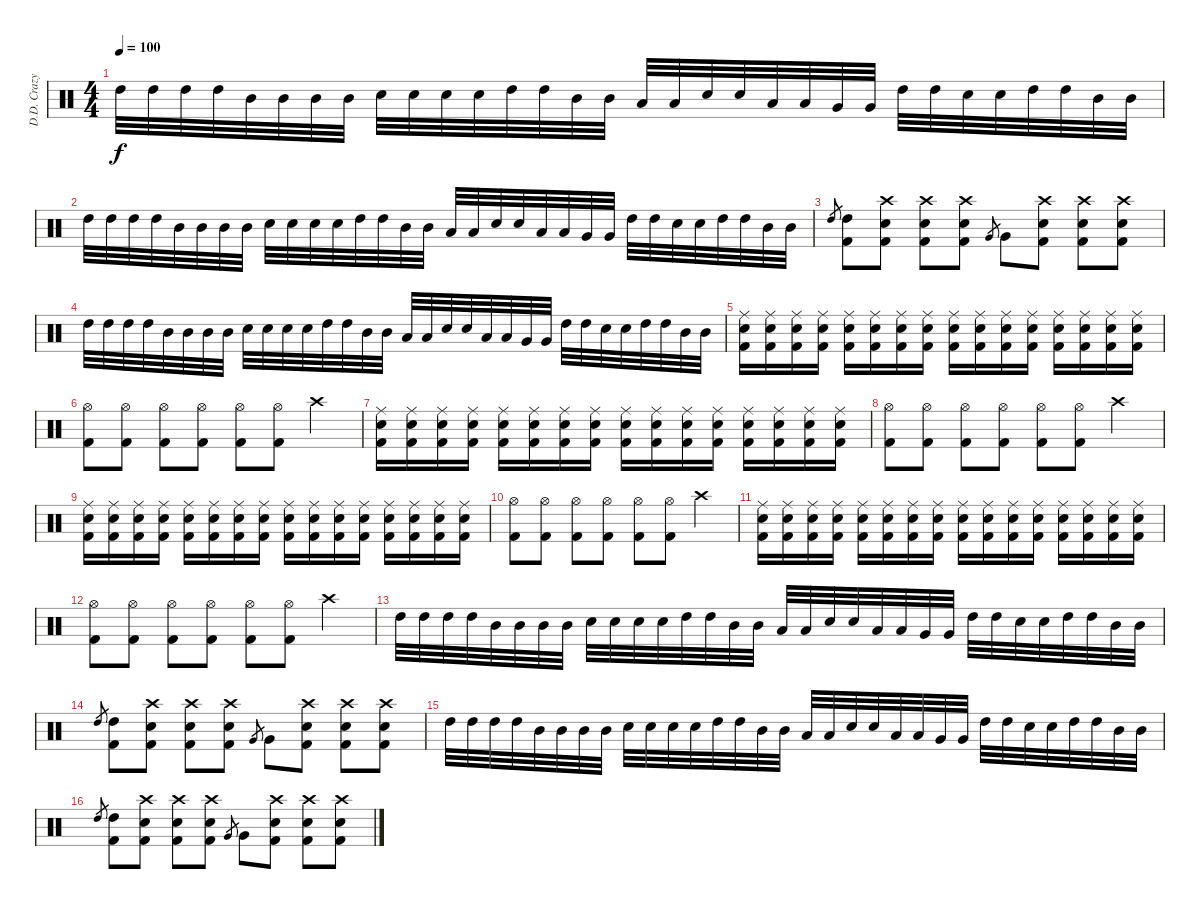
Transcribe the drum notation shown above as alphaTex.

\track ("D.D. Crazy " "D.D. Crazy") {instrument percussion}
\staff {score}
\articulation defaults
\ts (4 4)
\tempo 100
\clef neutral
\ks c "High Tom (hit)".32{dy f} "High Tom (hit)".32 "High Tom (hit)".32 "High Tom (hit)".32 "Mid Tom (hit)".32 "Mid Tom (hit)".32 "Mid Tom (hit)".32 "Mid Tom (hit)".32 "Snare (hit) 2".32 "Snare (hit) 2".32 "Snare (hit) 2".32 "Snare (hit) 2".32 "High Tom (hit)".32 "High Tom (hit)".32 "Mid Tom (hit)".32 "Mid Tom (hit)".32 "Low Tom (hit)".32 "Low Tom (hit)".32 "Snare (hit) 2".32 "Snare (hit) 2".32 "Low Tom (hit)".32 "Low Tom (hit)".32 "Very Low Tom (hit)".32 "Very Low Tom (hit)".32 "High Tom (hit)".32 "High Tom (hit)".32 "Snare (hit) 2".32 "Snare (hit) 2".32 "High Tom (hit)".32 "High Tom (hit)".32 "Mid Tom (hit)".32 "Mid Tom (hit)".32
|
"High Tom (hit)".32 "High Tom (hit)".32 "High Tom (hit)".32 "High Tom (hit)".32 "Mid Tom (hit)".32 "Mid Tom (hit)".32 "Mid Tom (hit)".32 "Mid Tom (hit)".32 "Snare (hit) 2".32 "Snare (hit) 2".32 "Snare (hit) 2".32 "Snare (hit) 2".32 "High Tom (hit)".32 "High Tom (hit)".32 "Mid Tom (hit)".32 "Mid Tom (hit)".32 "Low Tom (hit)".32 "Low Tom (hit)".32 "Snare (hit) 2".32 "Snare (hit) 2".32 "Low Tom (hit)".32 "Low Tom (hit)".32 "Very Low Tom (hit)".32 "Very Low Tom (hit)".32 "High Tom (hit)".32 "High Tom (hit)".32 "Snare (hit) 2".32 "Snare (hit) 2".32 "High Tom (hit)".32 "High Tom (hit)".32 "Mid Tom (hit)".32 "Mid Tom (hit)".32 |
"High Tom (hit)".8{gr} ("High Tom (hit)" "Kick (hit) 2").8 ("Crash high (hit)" "Snare (hit) 2" "Kick (hit) 2").8 ("Crash high (hit)" "Snare (hit) 2" "Kick (hit) 2").8 ("Crash high (hit)" "Snare (hit) 2" "Kick (hit) 2").8 "Very Low Tom (hit)".8{gr} "Very Low Tom (hit)".8 ("Crash high (hit)" "Snare (hit) 2" "Kick (hit) 2").8 ("Crash high (hit)" "Snare (hit) 2" "Kick (hit) 2").8 ("Crash high (hit)" "Snare (hit) 2" "Kick (hit) 2").8 |
"High Tom (hit)".32 "High Tom (hit)".32 "High Tom (hit)".32 "High Tom (hit)".32 "Mid Tom (hit)".32 "Mid Tom (hit)".32 "Mid Tom (hit)".32 "Mid Tom (hit)".32 "Snare (hit) 2".32 "Snare (hit) 2".32 "Snare (hit) 2".32 "Snare (hit) 2".32 "High Tom (hit)".32 "High Tom (hit)".32 "Mid Tom (hit)".32 "Mid Tom (hit)".32 "Low Tom (hit)".32 "Low Tom (hit)".32 "Snare (hit) 2".32 "Snare (hit) 2".32 "Low Tom (hit)".32 "Low Tom (hit)".32 "Very Low Tom (hit)".32 "Very Low Tom (hit)".32 "High Tom (hit)".32 "High Tom (hit)".32 "Snare (hit) 2".32 "Snare (hit) 2".32 "High Tom (hit)".32 "High Tom (hit)".32 "Mid Tom (hit)".32 "Mid Tom (hit)".32 |
("Ride (middle)" "Snare (hit) 2" "Kick (hit) 2").16 ("Ride (middle)" "Snare (hit) 2" "Kick (hit) 2").16 ("Ride (middle)" "Snare (hit) 2" "Kick (hit) 2").16 ("Ride (middle)" "Snare (hit) 2" "Kick (hit) 2").16 ("Ride (middle)" "Snare (hit) 2" "Kick (hit) 2").16 ("Ride (middle)" "Snare (hit) 2" "Kick (hit) 2").16 ("Ride (middle)" "Snare (hit) 2" "Kick (hit) 2").16 ("Ride (middle)" "Snare (hit) 2" "Kick (hit) 2").16 ("Ride (middle)" "Snare (hit) 2" "Kick (hit) 2").16 ("Ride (middle)" "Snare (hit) 2" "Kick (hit) 2").16 ("Ride (middle)" "Snare (hit) 2" "Kick (hit) 2").16 ("Ride (middle)" "Snare (hit) 2" "Kick (hit) 2").16 ("Ride (middle)" "Snare (hit) 2" "Kick (hit) 2").16 ("Ride (middle)" "Snare (hit) 2" "Kick (hit) 2").16 ("Ride (middle)" "Snare (hit) 2" "Kick (hit) 2").16 ("Ride (middle)" "Snare (hit) 2" "Kick (hit) 2").16 |
("Hi-Hat (open)" "Kick (hit) 2").8 ("Hi-Hat (open)" "Kick (hit) 2").8 ("Hi-Hat (open)" "Kick (hit) 2").8 ("Hi-Hat (open)" "Kick (hit) 2").8 ("Hi-Hat (open)" "Kick (hit) 2").8 ("Hi-Hat (open)" "Kick (hit) 2").8 "Crash high (hit)".4 |
("Ride (middle)" "Snare (hit) 2" "Kick (hit) 2").16 ("Ride (middle)" "Snare (hit) 2" "Kick (hit) 2").16 ("Ride (middle)" "Snare (hit) 2" "Kick (hit) 2").16 ("Ride (middle)" "Snare (hit) 2" "Kick (hit) 2").16 ("Ride (middle)" "Snare (hit) 2" "Kick (hit) 2").16 ("Ride (middle)" "Snare (hit) 2" "Kick (hit) 2").16 ("Ride (middle)" "Snare (hit) 2" "Kick (hit) 2").16 ("Ride (middle)" "Snare (hit) 2" "Kick (hit) 2").16 ("Ride (middle)" "Snare (hit) 2" "Kick (hit) 2").16 ("Ride (middle)" "Snare (hit) 2" "Kick (hit) 2").16 ("Ride (middle)" "Snare (hit) 2" "Kick (hit) 2").16 ("Ride (middle)" "Snare (hit) 2" "Kick (hit) 2").16 ("Ride (middle)" "Snare (hit) 2" "Kick (hit) 2").16 ("Ride (middle)" "Snare (hit) 2" "Kick (hit) 2").16 ("Ride (middle)" "Snare (hit) 2" "Kick (hit) 2").16 ("Ride (middle)" "Snare (hit) 2" "Kick (hit) 2").16 |
("Hi-Hat (open)" "Kick (hit) 2").8 ("Hi-Hat (open)" "Kick (hit) 2").8 ("Hi-Hat (open)" "Kick (hit) 2").8 ("Hi-Hat (open)" "Kick (hit) 2").8 ("Hi-Hat (open)" "Kick (hit) 2").8 ("Hi-Hat (open)" "Kick (hit) 2").8 "Crash high (hit)".4 |
("Ride (middle)" "Snare (hit) 2" "Kick (hit) 2").16 ("Ride (middle)" "Snare (hit) 2" "Kick (hit) 2").16 ("Ride (middle)" "Snare (hit) 2" "Kick (hit) 2").16 ("Ride (middle)" "Snare (hit) 2" "Kick (hit) 2").16 ("Ride (middle)" "Snare (hit) 2" "Kick (hit) 2").16 ("Ride (middle)" "Snare (hit) 2" "Kick (hit) 2").16 ("Ride (middle)" "Snare (hit) 2" "Kick (hit) 2").16 ("Ride (middle)" "Snare (hit) 2" "Kick (hit) 2").16 ("Ride (middle)" "Snare (hit) 2" "Kick (hit) 2").16 ("Ride (middle)" "Snare (hit) 2" "Kick (hit) 2").16 ("Ride (middle)" "Snare (hit) 2" "Kick (hit) 2").16 ("Ride (middle)" "Snare (hit) 2" "Kick (hit) 2").16 ("Ride (middle)" "Snare (hit) 2" "Kick (hit) 2").16 ("Ride (middle)" "Snare (hit) 2" "Kick (hit) 2").16 ("Ride (middle)" "Snare (hit) 2" "Kick (hit) 2").16 ("Ride (middle)" "Snare (hit) 2" "Kick (hit) 2").16 |
("Hi-Hat (open)" "Kick (hit) 2").8 ("Hi-Hat (open)" "Kick (hit) 2").8 ("Hi-Hat (open)" "Kick (hit) 2").8 ("Hi-Hat (open)" "Kick (hit) 2").8 ("Hi-Hat (open)" "Kick (hit) 2").8 ("Hi-Hat (open)" "Kick (hit) 2").8 "Crash high (hit)".4 |
("Ride (middle)" "Snare (hit) 2" "Kick (hit) 2").16 ("Ride (middle)" "Snare (hit) 2" "Kick (hit) 2").16 ("Ride (middle)" "Snare (hit) 2" "Kick (hit) 2").16 ("Ride (middle)" "Snare (hit) 2" "Kick (hit) 2").16 ("Ride (middle)" "Snare (hit) 2" "Kick (hit) 2").16 ("Ride (middle)" "Snare (hit) 2" "Kick (hit) 2").16 ("Ride (middle)" "Snare (hit) 2" "Kick (hit) 2").16 ("Ride (middle)" "Snare (hit) 2" "Kick (hit) 2").16 ("Ride (middle)" "Snare (hit) 2" "Kick (hit) 2").16 ("Ride (middle)" "Snare (hit) 2" "Kick (hit) 2").16 ("Ride (middle)" "Snare (hit) 2" "Kick (hit) 2").16 ("Ride (middle)" "Snare (hit) 2" "Kick (hit) 2").16 ("Ride (middle)" "Snare (hit) 2" "Kick (hit) 2").16 ("Ride (middle)" "Snare (hit) 2" "Kick (hit) 2").16 ("Ride (middle)" "Snare (hit) 2" "Kick (hit) 2").16 ("Ride (middle)" "Snare (hit) 2" "Kick (hit) 2").16 |
("Hi-Hat (open)" "Kick (hit) 2").8 ("Hi-Hat (open)" "Kick (hit) 2").8 ("Hi-Hat (open)" "Kick (hit) 2").8 ("Hi-Hat (open)" "Kick (hit) 2").8 ("Hi-Hat (open)" "Kick (hit) 2").8 ("Hi-Hat (open)" "Kick (hit) 2").8 "Crash high (hit)".4 |
"High Tom (hit)".32 "High Tom (hit)".32 "High Tom (hit)".32 "High Tom (hit)".32 "Mid Tom (hit)".32 "Mid Tom (hit)".32 "Mid Tom (hit)".32 "Mid Tom (hit)".32 "Snare (hit) 2".32 "Snare (hit) 2".32 "Snare (hit) 2".32 "Snare (hit) 2".32 "High Tom (hit)".32 "High Tom (hit)".32 "Mid Tom (hit)".32 "Mid Tom (hit)".32 "Low Tom (hit)".32 "Low Tom (hit)".32 "Snare (hit) 2".32 "Snare (hit) 2".32 "Low Tom (hit)".32 "Low Tom (hit)".32 "Very Low Tom (hit)".32 "Very Low Tom (hit)".32 "High Tom (hit)".32 "High Tom (hit)".32 "Snare (hit) 2".32 "Snare (hit) 2".32 "High Tom (hit)".32 "High Tom (hit)".32 "Mid Tom (hit)".32 "Mid Tom (hit)".32 |
"High Tom (hit)".8{gr} ("High Tom (hit)" "Kick (hit) 2").8 ("Crash high (hit)" "Snare (hit) 2" "Kick (hit) 2").8 ("Crash high (hit)" "Snare (hit) 2" "Kick (hit) 2").8 ("Crash high (hit)" "Snare (hit) 2" "Kick (hit) 2").8 "Very Low Tom (hit)".8{gr} "Very Low Tom (hit)".8 ("Crash high (hit)" "Snare (hit) 2" "Kick (hit) 2").8 ("Crash high (hit)" "Snare (hit) 2" "Kick (hit) 2").8 ("Crash high (hit)" "Snare (hit) 2" "Kick (hit) 2").8 |
"High Tom (hit)".32 "High Tom (hit)".32 "High Tom (hit)".32 "High Tom (hit)".32 "Mid Tom (hit)".32 "Mid Tom (hit)".32 "Mid Tom (hit)".32 "Mid Tom (hit)".32 "Snare (hit) 2".32 "Snare (hit) 2".32 "Snare (hit) 2".32 "Snare (hit) 2".32 "High Tom (hit)".32 "High Tom (hit)".32 "Mid Tom (hit)".32 "Mid Tom (hit)".32 "Low Tom (hit)".32 "Low Tom (hit)".32 "Snare (hit) 2".32 "Snare (hit) 2".32 "Low Tom (hit)".32 "Low Tom (hit)".32 "Very Low Tom (hit)".32 "Very Low Tom (hit)".32 "High Tom (hit)".32 "High Tom (hit)".32 "Snare (hit) 2".32 "Snare (hit) 2".32 "High Tom (hit)".32 "High Tom (hit)".32 "Mid Tom (hit)".32 "Mid Tom (hit)".32 |
"High Tom (hit)".8{gr} ("High Tom (hit)" "Kick (hit) 2").8 ("Crash high (hit)" "Snare (hit) 2" "Kick (hit) 2").8 ("Crash high (hit)" "Snare (hit) 2" "Kick (hit) 2").8 ("Crash high (hit)" "Snare (hit) 2" "Kick (hit) 2").8 "Very Low Tom (hit)".8{gr} "Very Low Tom (hit)".8 ("Crash high (hit)" "Snare (hit) 2" "Kick (hit) 2").8 ("Crash high (hit)" "Snare (hit) 2" "Kick (hit) 2").8 ("Crash high (hit)" "Snare (hit) 2" "Kick (hit) 2").8
